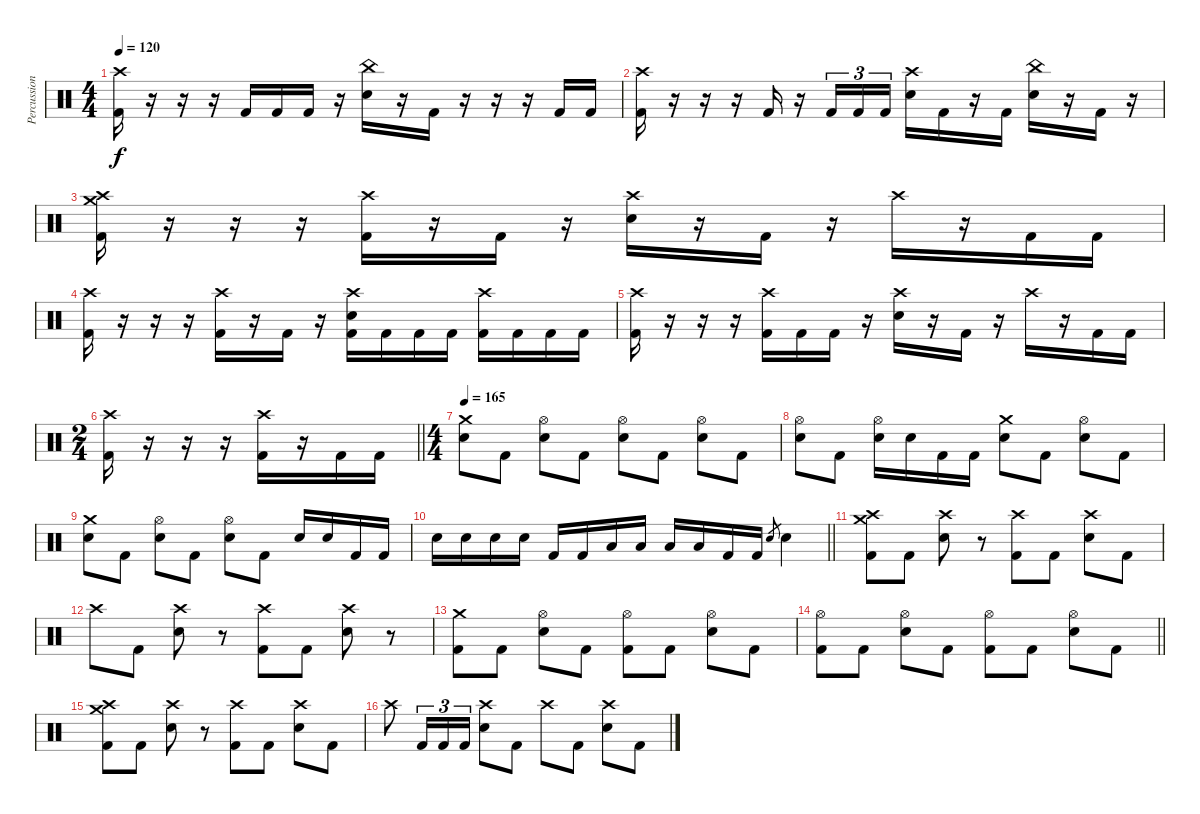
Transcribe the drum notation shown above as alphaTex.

\track ("Percussion" "Percussion") {instrument percussion}
\staff {score}
\articulation defaults
\ts (4 4)
\tempo 120
\clef neutral
\ks c
("Crash high (hit)" "Kick (hit) 2").16{dy f} r.16 r.16 r.16 "Kick (hit) 2".16 "Kick (hit) 2".16 "Kick (hit) 2".16 r.16 ("China (hit)" "Snare (hit) 2").16 r.16 "Kick (hit) 2".16 r.16 r.16 r.16 "Kick (hit) 2".16 "Kick (hit) 2".16 |
("Crash high (hit)" "Kick (hit) 2").16 r.16 r.16 r.16 "Kick (hit) 2".16 r.16 "Kick (hit) 2".16{tu (3 2)} "Kick (hit) 2".16{tu (3 2)} "Kick (hit) 2".16{tu (3 2)} ("Crash high (hit)" "Snare (hit) 2").16 "Kick (hit) 2".16 r.16 "Kick (hit) 2".16 ("China (hit)" "Snare (hit) 2").16 r.16 "Kick (hit) 2".16 r.16 |
("Crash high (hit)" "Crash medium (hit)" "Kick (hit) 2").16 r.16 r.16 r.16 ("Crash high (hit)" "Kick (hit) 2").16 r.16 "Kick (hit) 2".16 r.16 ("Crash high (hit)" "Snare (hit) 2").16 r.16 "Kick (hit) 2".16 r.16 "Crash high (hit)".16 r.16 "Kick (hit) 2".16 "Kick (hit) 2".16 |
("Crash high (hit)" "Kick (hit) 2").16 r.16 r.16 r.16 ("Crash high (hit)" "Kick (hit) 2").16 r.16 "Kick (hit) 2".16 r.16 ("Crash high (hit)" "Snare (hit) 2" "Kick (hit) 2").16 "Kick (hit) 2".16 "Kick (hit) 2".16 "Kick (hit) 2".16 ("Crash high (hit)" "Kick (hit) 2").16 "Kick (hit) 2".16 "Kick (hit) 2".16 "Kick (hit) 2".16 |
("Crash high (hit)" "Kick (hit) 2").16 r.16 r.16 r.16 ("Crash high (hit)" "Kick (hit) 2").16 "Kick (hit) 2".16 "Kick (hit) 2".16 r.16 ("Crash high (hit)" "Snare (hit) 2").16 r.16 "Kick (hit) 2".16 r.16 "Crash high (hit)".16 r.16 "Kick (hit) 2".16 "Kick (hit) 2".16 |
\ts (2 4)
\barLineRight lightlight
("Crash high (hit)" "Kick (hit) 2").16 r.16 r.16 r.16 ("Crash high (hit)" "Kick (hit) 2").16 r.16 "Kick (hit) 2".16 "Kick (hit) 2".16 |
\ts (4 4)
\section ("" "")
\tempo 165
("Crash medium (hit)" "Snare (hit) 2").8 "Kick (hit) 2".8 ("Hi-Hat (open)" "Snare (hit) 2").8 "Kick (hit) 2".8 ("Hi-Hat (open)" "Snare (hit) 2").8 "Kick (hit) 2".8 ("Hi-Hat (open)" "Snare (hit) 2").8 "Kick (hit) 2".8 |
("Hi-Hat (open)" "Snare (hit) 2").8 "Kick (hit) 2".8 ("Hi-Hat (open)" "Snare (hit) 2").16 "Snare (hit) 2".16 "Kick (hit) 2".16 "Kick (hit) 2".16 ("Crash medium (hit)" "Snare (hit) 2").8 "Kick (hit) 2".8 ("Hi-Hat (open)" "Snare (hit) 2").8 "Kick (hit) 2".8 |
("Crash medium (hit)" "Snare (hit) 2").8 "Kick (hit) 2".8 ("Hi-Hat (open)" "Snare (hit) 2").8 "Kick (hit) 2".8 ("Hi-Hat (open)" "Snare (hit) 2").8 "Kick (hit) 2".8 "Snare (hit) 2".16 "Snare (hit) 2".16 "Kick (hit) 2".16 "Kick (hit) 2".16 |
\barLineRight lightlight "Snare (hit) 2".16 "Snare (hit) 2".16 "Snare (hit) 2".16 "Snare (hit) 2".16 "Kick (hit) 2".16 "Kick (hit) 2".16 "Low Tom (hit)".16 "Low Tom (hit)".16 "Low Tom (hit)".16 "Low Tom (hit)".16 "Kick (hit) 2".16 "Kick (hit) 2".16 "Snare (hit) 2".8{gr} "Snare (hit) 2".4
|
\section ("" "")
("Crash high (hit)" "Crash medium (hit)" "Kick (hit) 2").8 "Kick (hit) 2".8 ("Crash high (hit)" "Snare (hit) 2").8 r.8 ("Crash high (hit)" "Kick (hit) 2").8 "Kick (hit) 2".8 ("Crash high (hit)" "Snare (hit) 2").8 "Kick (hit) 2".8 |
"Crash high (hit)".8 "Kick (hit) 2".8 ("Crash high (hit)" "Snare (hit) 2").8 r.8 ("Crash high (hit)" "Kick (hit) 2").8 "Kick (hit) 2".8 ("Crash high (hit)" "Snare (hit) 2").8 r.8 |
("Crash medium (hit)" "Kick (hit) 2").8 "Kick (hit) 2".8 ("Hi-Hat (open)" "Snare (hit) 2").8 "Kick (hit) 2".8 ("Hi-Hat (open)" "Kick (hit) 2").8 "Kick (hit) 2".8 ("Hi-Hat (open)" "Snare (hit) 2").8 "Kick (hit) 2".8 |
\barLineRight lightlight
("Hi-Hat (open)" "Kick (hit) 2").8 "Kick (hit) 2".8 ("Hi-Hat (open)" "Snare (hit) 2").8 "Kick (hit) 2".8 ("Hi-Hat (open)" "Kick (hit) 2").8 "Kick (hit) 2".8 ("Hi-Hat (open)" "Snare (hit) 2").8 "Kick (hit) 2".8 |
("Crash high (hit)" "Crash medium (hit)" "Kick (hit) 2").8 "Kick (hit) 2".8 ("Crash high (hit)" "Snare (hit) 2").8 r.8 ("Crash high (hit)" "Kick (hit) 2").8 "Kick (hit) 2".8 ("Crash high (hit)" "Snare (hit) 2").8 "Kick (hit) 2".8 |
"Crash high (hit)".8 "Kick (hit) 2".16{tu (3 2)} "Kick (hit) 2".16{tu (3 2)} "Kick (hit) 2".16{tu (3 2)} ("Crash high (hit)" "Snare (hit) 2").8 "Kick (hit) 2".8 "Crash high (hit)".8 "Kick (hit) 2".8 ("Crash high (hit)" "Snare (hit) 2").8 "Kick (hit) 2".8
